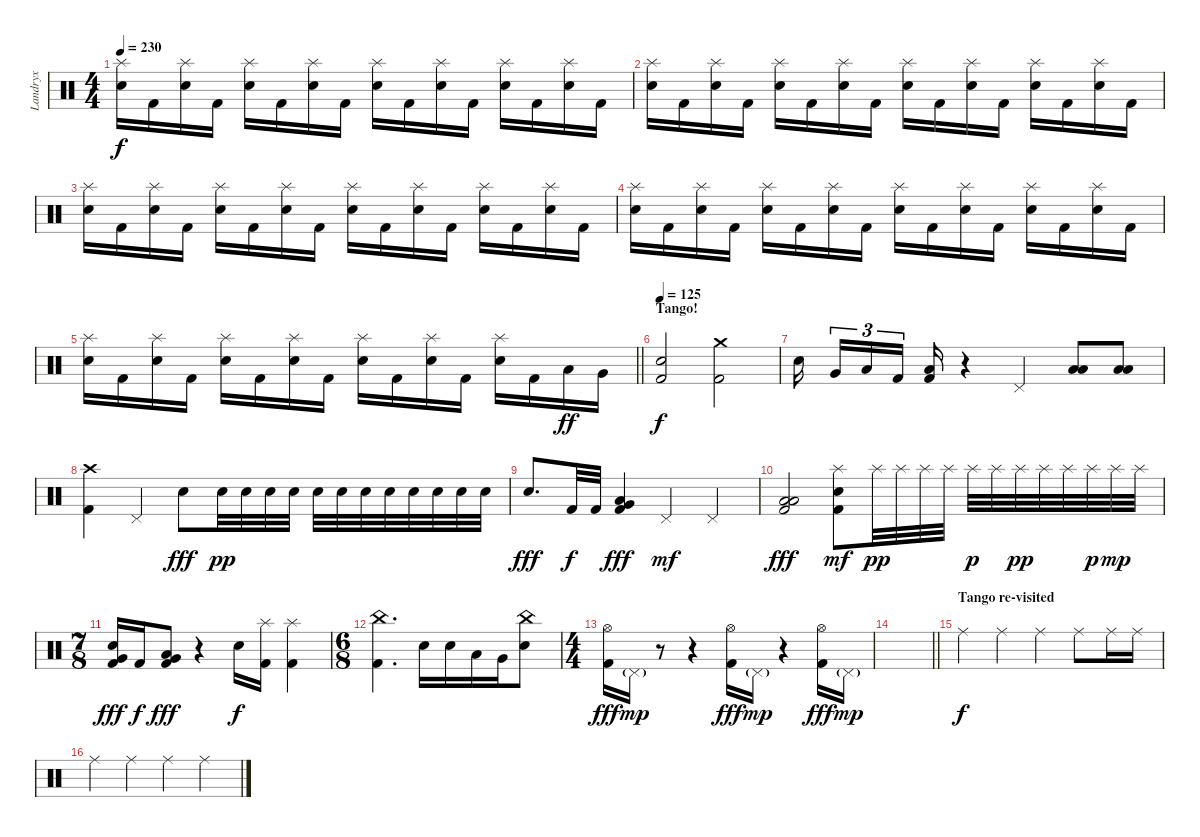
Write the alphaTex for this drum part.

\track ("Landryx" "Landryx") {instrument percussion}
\staff {score}
\articulation defaults
\ts (4 4)
\tempo 230
\clef neutral
\ks c
("Splash (hit)" "Electric Snare (hit)").16{dy f} "Kick (hit) 2".16 ("Splash (hit)" "Electric Snare (hit)").16 "Kick (hit) 2".16 ("Splash (hit)" "Electric Snare (hit)").16 "Kick (hit) 2".16 ("Splash (hit)" "Electric Snare (hit)").16 "Kick (hit) 2".16 ("Splash (hit)" "Electric Snare (hit)").16 "Kick (hit) 2".16 ("Splash (hit)" "Electric Snare (hit)").16 "Kick (hit) 2".16 ("Splash (hit)" "Electric Snare (hit)").16 "Kick (hit) 2".16 ("Splash (hit)" "Electric Snare (hit)").16 "Kick (hit) 2".16 |
("Splash (hit)" "Electric Snare (hit)").16 "Kick (hit) 2".16 ("Splash (hit)" "Electric Snare (hit)").16 "Kick (hit) 2".16 ("Splash (hit)" "Electric Snare (hit)").16 "Kick (hit) 2".16 ("Splash (hit)" "Electric Snare (hit)").16 "Kick (hit) 2".16 ("Splash (hit)" "Electric Snare (hit)").16 "Kick (hit) 2".16 ("Splash (hit)" "Electric Snare (hit)").16 "Kick (hit) 2".16 ("Splash (hit)" "Electric Snare (hit)").16 "Kick (hit) 2".16 ("Splash (hit)" "Electric Snare (hit)").16 "Kick (hit) 2".16 |
("Splash (hit)" "Electric Snare (hit)").16 "Kick (hit) 2".16 ("Splash (hit)" "Electric Snare (hit)").16 "Kick (hit) 2".16 ("Splash (hit)" "Electric Snare (hit)").16 "Kick (hit) 2".16 ("Splash (hit)" "Electric Snare (hit)").16 "Kick (hit) 2".16 ("Splash (hit)" "Electric Snare (hit)").16 "Kick (hit) 2".16 ("Splash (hit)" "Electric Snare (hit)").16 "Kick (hit) 2".16 ("Splash (hit)" "Electric Snare (hit)").16 "Kick (hit) 2".16 ("Splash (hit)" "Electric Snare (hit)").16 "Kick (hit) 2".16 |
("Splash (hit)" "Electric Snare (hit)").16 "Kick (hit) 2".16 ("Splash (hit)" "Electric Snare (hit)").16 "Kick (hit) 2".16 ("Splash (hit)" "Electric Snare (hit)").16 "Kick (hit) 2".16 ("Splash (hit)" "Electric Snare (hit)").16 "Kick (hit) 2".16 ("Splash (hit)" "Electric Snare (hit)").16 "Kick (hit) 2".16 ("Splash (hit)" "Electric Snare (hit)").16 "Kick (hit) 2".16 ("Splash (hit)" "Electric Snare (hit)").16 "Kick (hit) 2".16 ("Splash (hit)" "Electric Snare (hit)").16 "Kick (hit) 2".16 |
\barLineRight lightlight
("Splash (hit)" "Electric Snare (hit)").16 "Kick (hit) 2".16 ("Splash (hit)" "Electric Snare (hit)").16 "Kick (hit) 2".16 ("Splash (hit)" "Electric Snare (hit)").16 "Kick (hit) 2".16 ("Splash (hit)" "Electric Snare (hit)").16 "Kick (hit) 2".16 ("Splash (hit)" "Electric Snare (hit)").16 "Kick (hit) 2".16 ("Splash (hit)" "Electric Snare (hit)").16 "Kick (hit) 2".16 ("Splash (hit)" "Electric Snare (hit)").16 "Kick (hit) 2".16 "Low Tom (hit)".16{dy ff} "Very Low Tom (hit)".16 |
\section ("" "Tango!")
\tempo 125
("Electric Snare (hit)" "Kick (hit) 2").2{dy f} ("Crash medium (hit)" "Kick (hit) 2").2 |
"Electric Snare (hit)".16{beam splitsecondary} "Very Low Tom (hit)".16{tu (3 2)} "Low Floor Tom (hit)".16{tu (3 2)} "Kick (hit) 2".16{tu (3 2) beam splitsecondary} ("Low Floor Tom (hit)" "Kick (hit) 2").16 r.4 "Pedal Hi-Hat (hit)".4 ("Low Tom (hit)" "Low Floor Tom (hit)").8 ("Low Tom (hit)" "Low Floor Tom (hit)").8 |
("Crash high (hit)" "Kick (hit) 2").4 "Pedal Hi-Hat (hit)".4 "Electric Snare (hit)".8{dy fff} "Electric Snare (hit)".32{dy pp} "Electric Snare (hit)".32 "Electric Snare (hit)".32 "Electric Snare (hit)".32 "Electric Snare (hit)".32 "Electric Snare (hit)".32 "Electric Snare (hit)".32 "Electric Snare (hit)".32 "Electric Snare (hit)".32 "Electric Snare (hit)".32 "Electric Snare (hit)".32 "Electric Snare (hit)".32 |
"Electric Snare (hit)".8{d dy fff} "Kick (hit) 2".32{dy f} "Kick (hit) 2".32 ("Low Floor Tom (hit)" "Very Low Tom (hit)" "Kick (hit) 2").4{dy fff} "Pedal Hi-Hat (hit)".4{dy mf} "Pedal Hi-Hat (hit)".4 |
("Low Tom (hit)" "Low Floor Tom (hit)" "Kick (hit) 2").2{dy fff} ("Splash (hit)" "Electric Snare (hit)" "Kick (hit) 2").8{dy mf} "Splash (hit)".32{dy pp} "Splash (hit)".32 "Splash (hit)".32 "Splash (hit)".32 "Splash (hit)".32{dy p} "Splash (hit)".32 "Splash (hit)".32{dy pp} "Splash (hit)".32 "Splash (hit)".32 "Splash (hit)".32{dy p} "Splash (hit)".32{dy mp} "Splash (hit)".32 |
\ts (7 8)
("Electric Snare (hit)" "Very Low Tom (hit)" "Kick (hit) 2").16{dy fff} "Kick (hit) 2".16{dy f} ("Very Low Tom (hit)" "Low Floor Tom (hit)" "Kick (hit) 2").8{dy fff} r.4 "Electric Snare (hit)".16{dy f} ("Splash (hit)" "Kick (hit) 2").16 ("Splash (hit)" "Kick (hit) 2").4 |
\ts (6 8)
("China (hit)" "Kick (hit) 2").4{d} "Electric Snare (hit)".16 "Electric Snare (hit)".16 "Low Tom (hit)".16 "Very Low Tom (hit)".16 ("China (hit)" "Electric Snare (hit)").8 |
\ts (4 4)
("Hi-Hat (open)" "Kick (hit) 2").16{dy fff} "Pedal Hi-Hat (hit)"{g}.16{dy mp} r.8 r.4 ("Hi-Hat (open)" "Kick (hit) 2").16{dy fff} "Pedal Hi-Hat (hit)"{g}.16{dy mp} r.4 ("Hi-Hat (open)" "Kick (hit) 2").16{dy fff} "Pedal Hi-Hat (hit)"{g}.16{dy mp} |
\barLineRight lightlight
|
\section ("" "Tango re-visited")
"Ride (middle)".4{dy f} "Ride (middle)".4 "Ride (middle)".4 "Ride (middle)".8 "Ride (middle)".16 "Ride (middle)".16 |
"Ride (middle)".4 "Ride (middle)".4 "Ride (middle)".4 "Ride (middle)".4
